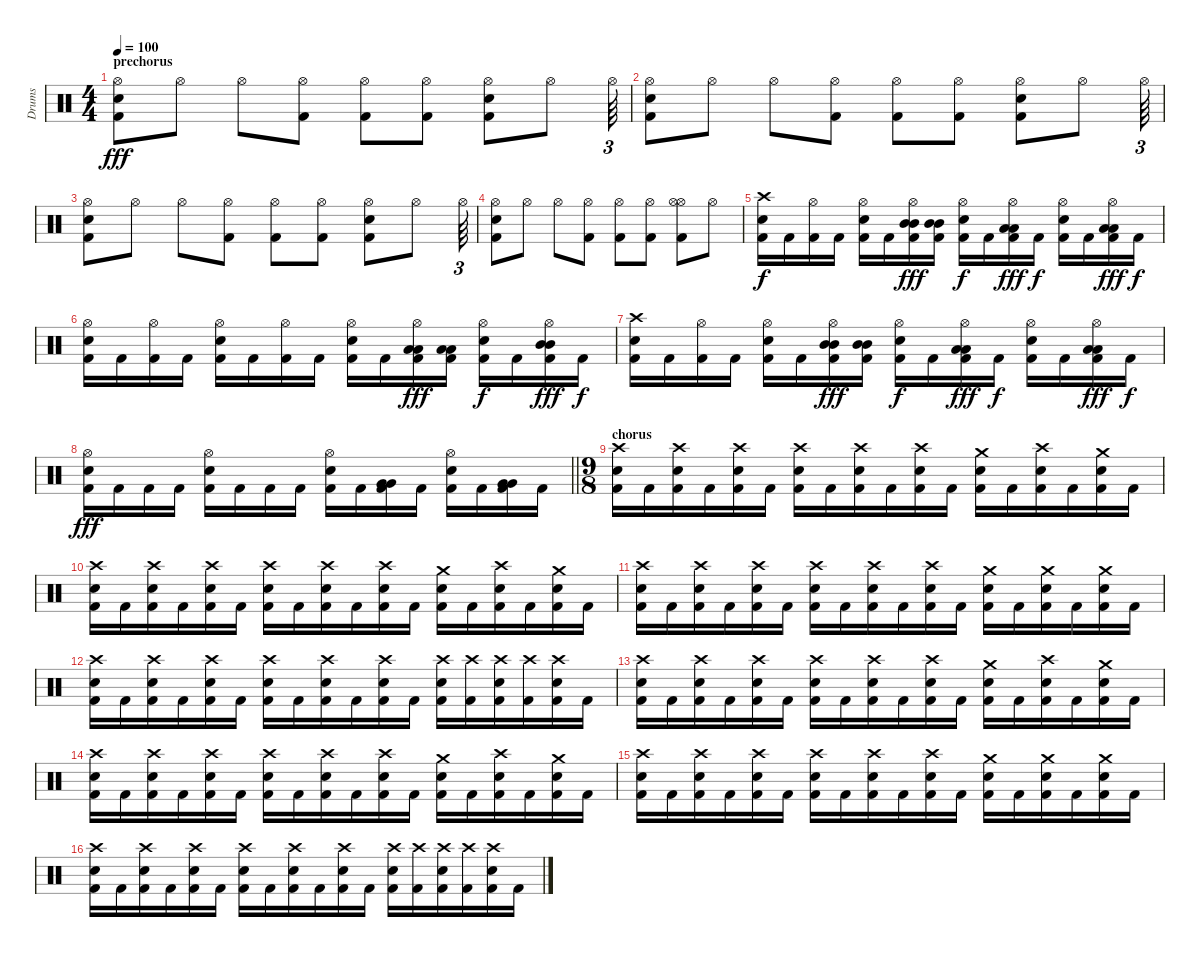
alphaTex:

\track ("Drums" "Drums") {instrument percussion}
\staff {score}
\articulation defaults
\ts (4 4)
\section ("" "prechorus")
\tempo 100
\clef neutral
\ks c
("Hi-Hat (open)" "Electric Snare (hit)" "Kick (hit) 2").8{dy fff} "Hi-Hat (open)".8 "Hi-Hat (open)".8 ("Hi-Hat (open)" "Kick (hit) 2").8 ("Hi-Hat (open)" "Kick (hit) 2").8 ("Hi-Hat (open)" "Kick (hit) 2").8 ("Hi-Hat (open)" "Electric Snare (hit)" "Kick (hit) 2").8 "Hi-Hat (open)".8 "Hi-Hat (open)".64{tu (3 2)} |
("Hi-Hat (open)" "Electric Snare (hit)" "Kick (hit) 2").8 "Hi-Hat (open)".8 "Hi-Hat (open)".8 ("Hi-Hat (open)" "Kick (hit) 2").8 ("Hi-Hat (open)" "Kick (hit) 2").8 ("Hi-Hat (open)" "Kick (hit) 2").8 ("Hi-Hat (open)" "Electric Snare (hit)" "Kick (hit) 2").8 "Hi-Hat (open)".8 "Hi-Hat (open)".64{tu (3 2)} |
("Hi-Hat (open)" "Electric Snare (hit)" "Kick (hit) 2").8 "Hi-Hat (open)".8 "Hi-Hat (open)".8 ("Hi-Hat (open)" "Kick (hit) 2").8 ("Hi-Hat (open)" "Kick (hit) 2").8 ("Hi-Hat (open)" "Kick (hit) 2").8 ("Hi-Hat (open)" "Electric Snare (hit)" "Kick (hit) 2").8 "Hi-Hat (open)".8 "Hi-Hat (open)".64{tu (3 2)} |
("Hi-Hat (open)" "Electric Snare (hit)" "Kick (hit) 2").8 "Hi-Hat (open)".8 "Hi-Hat (open)".8 ("Hi-Hat (open)" "Kick (hit) 2").8 ("Hi-Hat (open)" "Kick (hit) 2").8 ("Hi-Hat (open)" "Kick (hit) 2").8 ("Hi-Hat (open)" "Hi-Hat (open)" "Kick (hit) 2").8 "Hi-Hat (open)".8 |
("Crash high (hit)" "Electric Snare (hit)" "Kick (hit) 2").16{dy f} "Kick (hit) 2".16 ("Hi-Hat (open)" "Kick (hit) 2").16 "Kick (hit) 2".16 ("Hi-Hat (open)" "Electric Snare (hit)" "Kick (hit) 2").16 "Kick (hit) 2".16 ("Hi-Hat (open)" "Mid Tom (hit)" "Mid Tom (hit)" "Kick (hit) 2").16{dy fff} ("Mid Tom (hit)" "Mid Tom (hit)" "Kick (hit) 2").16 ("Hi-Hat (open)" "Electric Snare (hit)" "Kick (hit) 2").16{dy f} "Kick (hit) 2".16 ("Hi-Hat (open)" "Low Tom (hit)" "Low Tom (hit)" "Kick (hit) 2").16{dy fff} "Kick (hit) 2".16{dy f} ("Hi-Hat (open)" "Electric Snare (hit)" "Kick (hit) 2").16 "Kick (hit) 2".16 ("Hi-Hat (open)" "Low Tom (hit)" "Low Tom (hit)" "Kick (hit) 2").16{dy fff} "Kick (hit) 2".16{dy f} |
("Hi-Hat (open)" "Electric Snare (hit)" "Kick (hit) 2").16 "Kick (hit) 2".16 ("Hi-Hat (open)" "Kick (hit) 2").16 "Kick (hit) 2".16 ("Hi-Hat (open)" "Electric Snare (hit)" "Kick (hit) 2").16 "Kick (hit) 2".16 ("Hi-Hat (open)" "Kick (hit) 2").16 "Kick (hit) 2".16 ("Hi-Hat (open)" "Electric Snare (hit)" "Kick (hit) 2").16 "Kick (hit) 2".16 ("Hi-Hat (open)" "Low Tom (hit)" "Low Tom (hit)" "Kick (hit) 2").16{dy fff} ("Low Tom (hit)" "Low Tom (hit)" "Kick (hit) 2").16 ("Hi-Hat (open)" "Electric Snare (hit)" "Kick (hit) 2").16{dy f} "Kick (hit) 2".16 ("Hi-Hat (open)" "Mid Tom (hit)" "Mid Tom (hit)" "Kick (hit) 2").16{dy fff} "Kick (hit) 2".16{dy f} |
("Crash high (hit)" "Electric Snare (hit)" "Kick (hit) 2").16 "Kick (hit) 2".16 ("Hi-Hat (open)" "Kick (hit) 2").16 "Kick (hit) 2".16 ("Hi-Hat (open)" "Electric Snare (hit)" "Kick (hit) 2").16 "Kick (hit) 2".16 ("Hi-Hat (open)" "Mid Tom (hit)" "Mid Tom (hit)" "Kick (hit) 2").16{dy fff} ("Mid Tom (hit)" "Mid Tom (hit)" "Kick (hit) 2").16 ("Hi-Hat (open)" "Electric Snare (hit)" "Kick (hit) 2").16{dy f} "Kick (hit) 2".16 ("Hi-Hat (open)" "Low Tom (hit)" "Low Tom (hit)" "Kick (hit) 2").16{dy fff} "Kick (hit) 2".16{dy f} ("Hi-Hat (open)" "Electric Snare (hit)" "Kick (hit) 2").16 "Kick (hit) 2".16 ("Hi-Hat (open)" "Low Tom (hit)" "Low Tom (hit)" "Kick (hit) 2").16{dy fff} "Kick (hit) 2".16{dy f} |
\barLineRight lightlight
("Hi-Hat (open)" "Electric Snare (hit)" "Kick (hit) 2").16{dy fff} "Kick (hit) 2".16 "Kick (hit) 2".16 "Kick (hit) 2".16 ("Hi-Hat (open)" "Electric Snare (hit)" "Kick (hit) 2").16 "Kick (hit) 2".16 "Kick (hit) 2".16 "Kick (hit) 2".16 ("Hi-Hat (open)" "Electric Snare (hit)" "Kick (hit) 2").16 "Kick (hit) 2".16 ("Very Low Tom (hit)" "Very Low Tom (hit)" "Kick (hit) 2").16 "Kick (hit) 2".16 ("Hi-Hat (open)" "Electric Snare (hit)" "Kick (hit) 2").16 "Kick (hit) 2".16 ("Very Low Tom (hit)" "Very Low Tom (hit)" "Kick (hit) 2").16 "Kick (hit) 2".16 |
\ts (9 8)
\section ("" "chorus")
("Crash high (hit)" "Electric Snare (hit)" "Kick (hit) 2").16 "Kick (hit) 2".16 ("Crash high (hit)" "Electric Snare (hit)" "Kick (hit) 2").16 "Kick (hit) 2".16 ("Crash high (hit)" "Electric Snare (hit)" "Kick (hit) 2").16 "Kick (hit) 2".16 ("Crash high (hit)" "Electric Snare (hit)" "Kick (hit) 2").16 "Kick (hit) 2".16 ("Crash high (hit)" "Electric Snare (hit)" "Kick (hit) 2").16 "Kick (hit) 2".16 ("Crash high (hit)" "Electric Snare (hit)" "Kick (hit) 2").16 "Kick (hit) 2".16 ("Crash medium (hit)" "Electric Snare (hit)" "Kick (hit) 2").16 "Kick (hit) 2".16 ("Crash high (hit)" "Electric Snare (hit)" "Kick (hit) 2").16 "Kick (hit) 2".16 ("Crash medium (hit)" "Electric Snare (hit)" "Kick (hit) 2").16 "Kick (hit) 2".16 |
("Crash high (hit)" "Electric Snare (hit)" "Kick (hit) 2").16 "Kick (hit) 2".16 ("Crash high (hit)" "Electric Snare (hit)" "Kick (hit) 2").16 "Kick (hit) 2".16 ("Crash high (hit)" "Electric Snare (hit)" "Kick (hit) 2").16 "Kick (hit) 2".16 ("Crash high (hit)" "Electric Snare (hit)" "Kick (hit) 2").16 "Kick (hit) 2".16 ("Crash high (hit)" "Electric Snare (hit)" "Kick (hit) 2").16 "Kick (hit) 2".16 ("Crash high (hit)" "Electric Snare (hit)" "Kick (hit) 2").16 "Kick (hit) 2".16 ("Crash medium (hit)" "Electric Snare (hit)" "Kick (hit) 2").16 "Kick (hit) 2".16 ("Crash high (hit)" "Electric Snare (hit)" "Kick (hit) 2").16 "Kick (hit) 2".16 ("Crash medium (hit)" "Electric Snare (hit)" "Kick (hit) 2").16 "Kick (hit) 2".16 |
("Crash high (hit)" "Electric Snare (hit)" "Kick (hit) 2").16 "Kick (hit) 2".16 ("Crash high (hit)" "Electric Snare (hit)" "Kick (hit) 2").16 "Kick (hit) 2".16 ("Crash high (hit)" "Electric Snare (hit)" "Kick (hit) 2").16 "Kick (hit) 2".16 ("Crash high (hit)" "Electric Snare (hit)" "Kick (hit) 2").16 "Kick (hit) 2".16 ("Crash high (hit)" "Electric Snare (hit)" "Kick (hit) 2").16 "Kick (hit) 2".16 ("Crash high (hit)" "Electric Snare (hit)" "Kick (hit) 2").16 "Kick (hit) 2".16 ("Crash medium (hit)" "Electric Snare (hit)" "Kick (hit) 2").16 "Kick (hit) 2".16 ("Crash medium (hit)" "Electric Snare (hit)" "Kick (hit) 2").16 "Kick (hit) 2".16 ("Crash medium (hit)" "Electric Snare (hit)" "Kick (hit) 2").16 "Kick (hit) 2".16 |
("Crash high (hit)" "Electric Snare (hit)" "Kick (hit) 2").16 "Kick (hit) 2".16 ("Crash high (hit)" "Electric Snare (hit)" "Kick (hit) 2").16 "Kick (hit) 2".16 ("Crash high (hit)" "Electric Snare (hit)" "Kick (hit) 2").16 "Kick (hit) 2".16 ("Crash high (hit)" "Electric Snare (hit)" "Kick (hit) 2").16 "Kick (hit) 2".16 ("Crash high (hit)" "Electric Snare (hit)" "Kick (hit) 2").16 "Kick (hit) 2".16 ("Crash high (hit)" "Electric Snare (hit)" "Kick (hit) 2").16 "Kick (hit) 2".16 ("Crash high (hit)" "Electric Snare (hit)" "Kick (hit) 2").16 ("Crash high (hit)" "Kick (hit) 2").16 ("Crash high (hit)" "Electric Snare (hit)" "Kick (hit) 2").16 ("Crash high (hit)" "Kick (hit) 2").16 ("Crash high (hit)" "Electric Snare (hit)" "Kick (hit) 2").16 "Kick (hit) 2".16 |
("Crash high (hit)" "Electric Snare (hit)" "Kick (hit) 2").16 "Kick (hit) 2".16 ("Crash high (hit)" "Electric Snare (hit)" "Kick (hit) 2").16 "Kick (hit) 2".16 ("Crash high (hit)" "Electric Snare (hit)" "Kick (hit) 2").16 "Kick (hit) 2".16 ("Crash high (hit)" "Electric Snare (hit)" "Kick (hit) 2").16 "Kick (hit) 2".16 ("Crash high (hit)" "Electric Snare (hit)" "Kick (hit) 2").16 "Kick (hit) 2".16 ("Crash high (hit)" "Electric Snare (hit)" "Kick (hit) 2").16 "Kick (hit) 2".16 ("Crash medium (hit)" "Electric Snare (hit)" "Kick (hit) 2").16 "Kick (hit) 2".16 ("Crash high (hit)" "Electric Snare (hit)" "Kick (hit) 2").16 "Kick (hit) 2".16 ("Crash medium (hit)" "Electric Snare (hit)" "Kick (hit) 2").16 "Kick (hit) 2".16 |
("Crash high (hit)" "Electric Snare (hit)" "Kick (hit) 2").16 "Kick (hit) 2".16 ("Crash high (hit)" "Electric Snare (hit)" "Kick (hit) 2").16 "Kick (hit) 2".16 ("Crash high (hit)" "Electric Snare (hit)" "Kick (hit) 2").16 "Kick (hit) 2".16 ("Crash high (hit)" "Electric Snare (hit)" "Kick (hit) 2").16 "Kick (hit) 2".16 ("Crash high (hit)" "Electric Snare (hit)" "Kick (hit) 2").16 "Kick (hit) 2".16 ("Crash high (hit)" "Electric Snare (hit)" "Kick (hit) 2").16 "Kick (hit) 2".16 ("Crash medium (hit)" "Electric Snare (hit)" "Kick (hit) 2").16 "Kick (hit) 2".16 ("Crash high (hit)" "Electric Snare (hit)" "Kick (hit) 2").16 "Kick (hit) 2".16 ("Crash medium (hit)" "Electric Snare (hit)" "Kick (hit) 2").16 "Kick (hit) 2".16 |
("Crash high (hit)" "Electric Snare (hit)" "Kick (hit) 2").16 "Kick (hit) 2".16 ("Crash high (hit)" "Electric Snare (hit)" "Kick (hit) 2").16 "Kick (hit) 2".16 ("Crash high (hit)" "Electric Snare (hit)" "Kick (hit) 2").16 "Kick (hit) 2".16 ("Crash high (hit)" "Electric Snare (hit)" "Kick (hit) 2").16 "Kick (hit) 2".16 ("Crash high (hit)" "Electric Snare (hit)" "Kick (hit) 2").16 "Kick (hit) 2".16 ("Crash high (hit)" "Electric Snare (hit)" "Kick (hit) 2").16 "Kick (hit) 2".16 ("Crash medium (hit)" "Electric Snare (hit)" "Kick (hit) 2").16 "Kick (hit) 2".16 ("Crash medium (hit)" "Electric Snare (hit)" "Kick (hit) 2").16 "Kick (hit) 2".16 ("Crash medium (hit)" "Electric Snare (hit)" "Kick (hit) 2").16 "Kick (hit) 2".16 |
("Crash high (hit)" "Electric Snare (hit)" "Kick (hit) 2").16 "Kick (hit) 2".16 ("Crash high (hit)" "Electric Snare (hit)" "Kick (hit) 2").16 "Kick (hit) 2".16 ("Crash high (hit)" "Electric Snare (hit)" "Kick (hit) 2").16 "Kick (hit) 2".16 ("Crash high (hit)" "Electric Snare (hit)" "Kick (hit) 2").16 "Kick (hit) 2".16 ("Crash high (hit)" "Electric Snare (hit)" "Kick (hit) 2").16 "Kick (hit) 2".16 ("Crash high (hit)" "Electric Snare (hit)" "Kick (hit) 2").16 "Kick (hit) 2".16 ("Crash high (hit)" "Electric Snare (hit)" "Kick (hit) 2").16 ("Crash high (hit)" "Kick (hit) 2").16 ("Crash high (hit)" "Electric Snare (hit)" "Kick (hit) 2").16 ("Crash high (hit)" "Kick (hit) 2").16 ("Crash high (hit)" "Electric Snare (hit)" "Kick (hit) 2").16 "Kick (hit) 2".16
